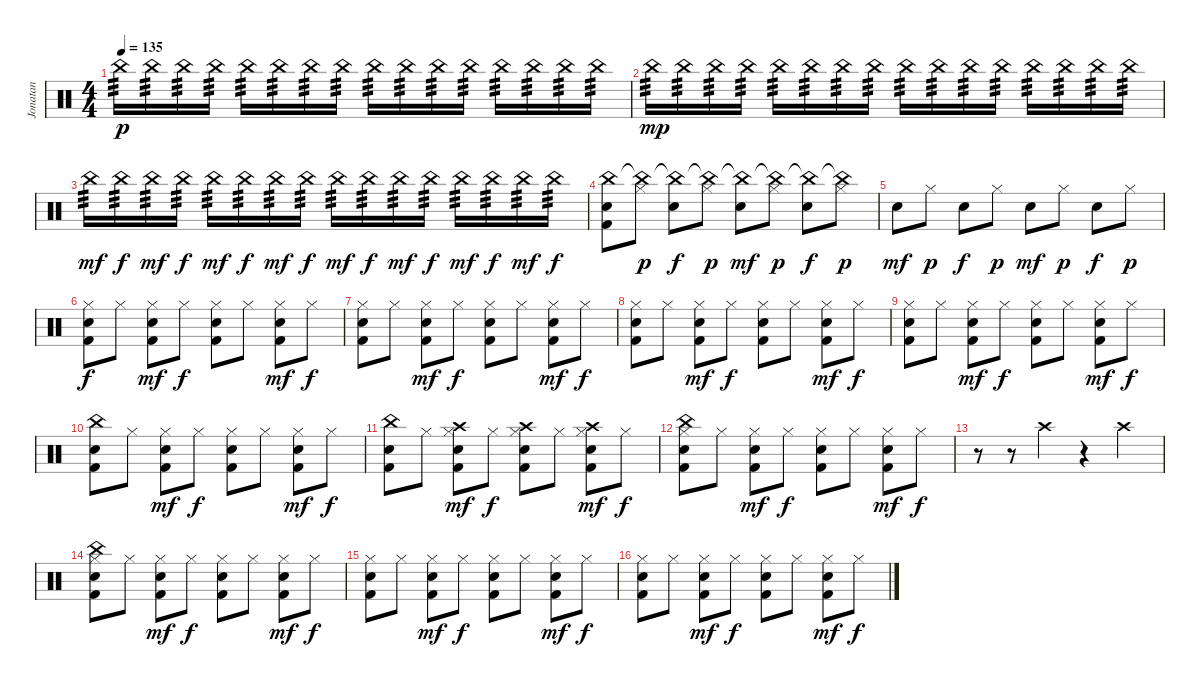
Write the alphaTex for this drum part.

\track ("Jonatan" "Jonatan") {instrument percussion}
\staff {score}
\articulation defaults
\ts (4 4)
\tempo 135
\clef neutral
\ks c "China (hit)".16{tp 3 dy p} "China (hit)".16{tp 3} "China (hit)".16{tp 3} "China (hit)".16{tp 3} "China (hit)".16{tp 3} "China (hit)".16{tp 3} "China (hit)".16{tp 3} "China (hit)".16{tp 3} "China (hit)".16{tp 3} "China (hit)".16{tp 3} "China (hit)".16{tp 3} "China (hit)".16{tp 3} "China (hit)".16{tp 3} "China (hit)".16{tp 3} "China (hit)".16{tp 3} "China (hit)".16{tp 3}
|
"China (hit)".16{tp 3 dy mp} "China (hit)".16{tp 3} "China (hit)".16{tp 3} "China (hit)".16{tp 3} "China (hit)".16{tp 3} "China (hit)".16{tp 3} "China (hit)".16{tp 3} "China (hit)".16{tp 3} "China (hit)".16{tp 3} "China (hit)".16{tp 3} "China (hit)".16{tp 3} "China (hit)".16{tp 3} "China (hit)".16{tp 3} "China (hit)".16{tp 3} "China (hit)".16{tp 3} "China (hit)".16{tp 3} |
"China (hit)".16{tp 3 dy mf} "China (hit)".16{tp 3 dy f} "China (hit)".16{tp 3 dy mf} "China (hit)".16{tp 3 dy f} "China (hit)".16{tp 3 dy mf} "China (hit)".16{tp 3 dy f} "China (hit)".16{tp 3 dy mf} "China (hit)".16{tp 3 dy f} "China (hit)".16{tp 3 dy mf} "China (hit)".16{tp 3 dy f} "China (hit)".16{tp 3 dy mf} "China (hit)".16{tp 3 dy f} "China (hit)".16{tp 3 dy mf} "China (hit)".16{tp 3 dy f} "China (hit)".16{tp 3 dy mf} "China (hit)".16{tp 3 dy f} |
("China (hit)" "Electric Snare (hit)" "Kick (hit) 2").8 ("China (hit)"{t} "Hi-Hat (closed)").8{dy p} ("China (hit)"{t} "Electric Snare (hit)").8{dy f} ("China (hit)"{t} "Hi-Hat (closed)").8{dy p} ("China (hit)"{t} "Electric Snare (hit)").8{dy mf} ("China (hit)"{t} "Hi-Hat (closed)").8{dy p} ("China (hit)"{t} "Electric Snare (hit)").8{dy f} ("China (hit)"{t} "Hi-Hat (closed)").8{dy p} |
"Electric Snare (hit)".8{dy mf} "Hi-Hat (closed)".8{dy p} "Electric Snare (hit)".8{dy f} "Hi-Hat (closed)".8{dy p} "Electric Snare (hit)".8{dy mf} "Hi-Hat (closed)".8{dy p} "Electric Snare (hit)".8{dy f} "Hi-Hat (closed)".8{dy p} |
("Hi-Hat (closed)" "Electric Snare (hit)" "Kick (hit) 2").8{dy f} "Hi-Hat (closed)".8 ("Hi-Hat (closed)" "Electric Snare (hit)" "Kick (hit) 2").8{dy mf} "Hi-Hat (closed)".8{dy f} ("Hi-Hat (closed)" "Electric Snare (hit)" "Kick (hit) 2").8 "Hi-Hat (closed)".8 ("Hi-Hat (closed)" "Electric Snare (hit)" "Kick (hit) 2").8{dy mf} "Hi-Hat (closed)".8{dy f} |
("Hi-Hat (closed)" "Electric Snare (hit)" "Kick (hit) 2").8 "Hi-Hat (closed)".8 ("Hi-Hat (closed)" "Electric Snare (hit)" "Kick (hit) 2").8{dy mf} "Hi-Hat (closed)".8{dy f} ("Hi-Hat (closed)" "Electric Snare (hit)" "Kick (hit) 2").8 "Hi-Hat (closed)".8 ("Hi-Hat (closed)" "Electric Snare (hit)" "Kick (hit) 2").8{dy mf} "Hi-Hat (closed)".8{dy f} |
("Hi-Hat (closed)" "Electric Snare (hit)" "Kick (hit) 2").8 "Hi-Hat (closed)".8 ("Hi-Hat (closed)" "Electric Snare (hit)" "Kick (hit) 2").8{dy mf} "Hi-Hat (closed)".8{dy f} ("Hi-Hat (closed)" "Electric Snare (hit)" "Kick (hit) 2").8 "Hi-Hat (closed)".8 ("Hi-Hat (closed)" "Electric Snare (hit)" "Kick (hit) 2").8{dy mf} "Hi-Hat (closed)".8{dy f} |
("Hi-Hat (closed)" "Electric Snare (hit)" "Kick (hit) 2").8 "Hi-Hat (closed)".8 ("Hi-Hat (closed)" "Electric Snare (hit)" "Kick (hit) 2").8{dy mf} "Hi-Hat (closed)".8{dy f} ("Hi-Hat (closed)" "Electric Snare (hit)" "Kick (hit) 2").8 "Hi-Hat (closed)".8 ("Hi-Hat (closed)" "Electric Snare (hit)" "Kick (hit) 2").8{dy mf} "Hi-Hat (closed)".8{dy f} |
("China (hit)" "Electric Snare (hit)" "Kick (hit) 2").8 "Hi-Hat (closed)".8 ("Hi-Hat (closed)" "Electric Snare (hit)" "Kick (hit) 2").8{dy mf} "Hi-Hat (closed)".8{dy f} ("Hi-Hat (closed)" "Electric Snare (hit)" "Kick (hit) 2").8 "Hi-Hat (closed)".8 ("Hi-Hat (closed)" "Electric Snare (hit)" "Kick (hit) 2").8{dy mf} "Hi-Hat (closed)".8{dy f} |
("China (hit)" "Electric Snare (hit)" "Kick (hit) 2").8 "Hi-Hat (closed)".8 ("Crash high (hit)" "Hi-Hat (closed)" "Electric Snare (hit)" "Kick (hit) 2").8{dy mf} "Hi-Hat (closed)".8{dy f} ("Crash high (hit)" "Hi-Hat (closed)" "Electric Snare (hit)" "Kick (hit) 2").8 "Hi-Hat (closed)".8 ("Crash high (hit)" "Hi-Hat (closed)" "Electric Snare (hit)" "Kick (hit) 2").8{dy mf} "Hi-Hat (closed)".8{dy f} |
("China (hit)" "Hi-Hat (closed)" "Electric Snare (hit)" "Kick (hit) 2").8 "Hi-Hat (closed)".8 ("Hi-Hat (closed)" "Electric Snare (hit)" "Kick (hit) 2").8{dy mf} "Hi-Hat (closed)".8{dy f} ("Hi-Hat (closed)" "Electric Snare (hit)" "Kick (hit) 2").8 "Hi-Hat (closed)".8 ("Hi-Hat (closed)" "Electric Snare (hit)" "Kick (hit) 2").8{dy mf} "Hi-Hat (closed)".8{dy f} |
r.8 r.8 "Crash high (hit)".4 r.4 "Crash high (hit)".4 |
("China (hit)" "Hi-Hat (closed)" "Electric Snare (hit)" "Kick (hit) 2").8 "Hi-Hat (closed)".8 ("Hi-Hat (closed)" "Electric Snare (hit)" "Kick (hit) 2").8{dy mf} "Hi-Hat (closed)".8{dy f} ("Hi-Hat (closed)" "Electric Snare (hit)" "Kick (hit) 2").8 "Hi-Hat (closed)".8 ("Hi-Hat (closed)" "Electric Snare (hit)" "Kick (hit) 2").8{dy mf} "Hi-Hat (closed)".8{dy f} |
("Hi-Hat (closed)" "Electric Snare (hit)" "Kick (hit) 2").8 "Hi-Hat (closed)".8 ("Hi-Hat (closed)" "Electric Snare (hit)" "Kick (hit) 2").8{dy mf} "Hi-Hat (closed)".8{dy f} ("Hi-Hat (closed)" "Electric Snare (hit)" "Kick (hit) 2").8 "Hi-Hat (closed)".8 ("Hi-Hat (closed)" "Electric Snare (hit)" "Kick (hit) 2").8{dy mf} "Hi-Hat (closed)".8{dy f} |
("Hi-Hat (closed)" "Electric Snare (hit)" "Kick (hit) 2").8 "Hi-Hat (closed)".8 ("Hi-Hat (closed)" "Electric Snare (hit)" "Kick (hit) 2").8{dy mf} "Hi-Hat (closed)".8{dy f} ("Hi-Hat (closed)" "Electric Snare (hit)" "Kick (hit) 2").8 "Hi-Hat (closed)".8 ("Hi-Hat (closed)" "Electric Snare (hit)" "Kick (hit) 2").8{dy mf} "Hi-Hat (closed)".8{dy f}
